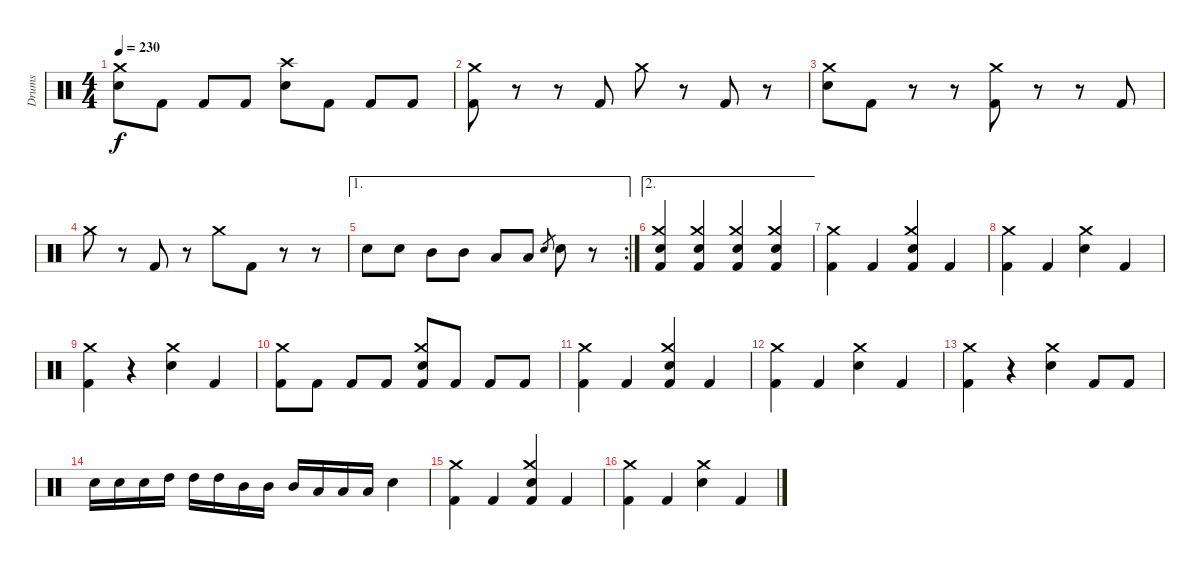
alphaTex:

\track ("Drums" "Drums") {instrument percussion}
\staff {score}
\articulation defaults
\ts (4 4)
\tempo 230
\clef neutral
\ks c
("Electric Snare (hit)" "Crash medium (hit)").8{dy f} "Kick (hit) 2".8 "Kick (hit) 2".8 "Kick (hit) 2".8 ("Electric Snare (hit)" "Crash high (hit)").8 "Kick (hit) 2".8 "Kick (hit) 2".8 "Kick (hit) 2".8 |
("Kick (hit) 2" "Crash medium (hit)").8 r.8 r.8 "Kick (hit) 2".8 "Crash medium (hit)".8 r.8 "Kick (hit) 2".8 r.8 |
("Electric Snare (hit)" "Crash medium (hit)").8 "Kick (hit) 2".8 r.8 r.8 ("Kick (hit) 2" "Crash medium (hit)").8 r.8 r.8 "Kick (hit) 2".8 |
"Crash medium (hit)".8 r.8 "Kick (hit) 2".8 r.8 "Crash medium (hit)".8 "Kick (hit) 2".8 r.8 r.8 |
\ae 1
\rc 2 "Electric Snare (hit)".8 "Electric Snare (hit)".8 "Mid Tom (hit)".8 "Mid Tom (hit)".8 "Low Tom (hit)".8 "Low Tom (hit)".8 "Electric Snare (hit)".8{gr} "Electric Snare (hit)".8
r.8 |
\ae 2
("Kick (hit) 2" "Electric Snare (hit)" "Crash medium (hit)").4 ("Kick (hit) 2" "Electric Snare (hit)" "Crash medium (hit)").4 ("Kick (hit) 2" "Electric Snare (hit)" "Crash medium (hit)").4 ("Kick (hit) 2" "Electric Snare (hit)" "Crash medium (hit)").4 |
("Kick (hit) 2" "Crash medium (hit)").4 "Kick (hit) 2".4 ("Kick (hit) 2" "Electric Snare (hit)" "Crash medium (hit)").4 "Kick (hit) 2".4 |
("Kick (hit) 2" "Crash medium (hit)").4 "Kick (hit) 2".4 ("Electric Snare (hit)" "Crash medium (hit)").4 "Kick (hit) 2".4 |
("Kick (hit) 2" "Crash medium (hit)").4 r.4 ("Electric Snare (hit)" "Crash medium (hit)").4 "Kick (hit) 2".4 |
("Kick (hit) 2" "Crash medium (hit)").8 "Kick (hit) 2".8 "Kick (hit) 2".8 "Kick (hit) 2".8 ("Kick (hit) 2" "Electric Snare (hit)" "Crash medium (hit)").8 "Kick (hit) 2".8 "Kick (hit) 2".8 "Kick (hit) 2".8 |
("Kick (hit) 2" "Crash medium (hit)").4 "Kick (hit) 2".4 ("Kick (hit) 2" "Electric Snare (hit)" "Crash medium (hit)").4 "Kick (hit) 2".4 |
("Kick (hit) 2" "Crash medium (hit)").4 "Kick (hit) 2".4 ("Electric Snare (hit)" "Crash medium (hit)").4 "Kick (hit) 2".4 |
("Kick (hit) 2" "Crash medium (hit)").4 r.4 ("Electric Snare (hit)" "Crash medium (hit)").4 "Kick (hit) 2".8 "Kick (hit) 2".8 |
"Electric Snare (hit)".16 "Electric Snare (hit)".16 "Electric Snare (hit)".16 "High Tom (hit)".16 "High Tom (hit)".16 "High Tom (hit)".16 "Mid Tom (hit)".16 "Mid Tom (hit)".16 "Mid Tom (hit)".16 "Low Tom (hit)".16 "Low Tom (hit)".16 "Low Tom (hit)".16 "Electric Snare (hit)".4 |
("Kick (hit) 2" "Crash medium (hit)").4 "Kick (hit) 2".4 ("Kick (hit) 2" "Electric Snare (hit)" "Crash medium (hit)").4 "Kick (hit) 2".4 |
("Kick (hit) 2" "Crash medium (hit)").4 "Kick (hit) 2".4 ("Electric Snare (hit)" "Crash medium (hit)").4 "Kick (hit) 2".4
